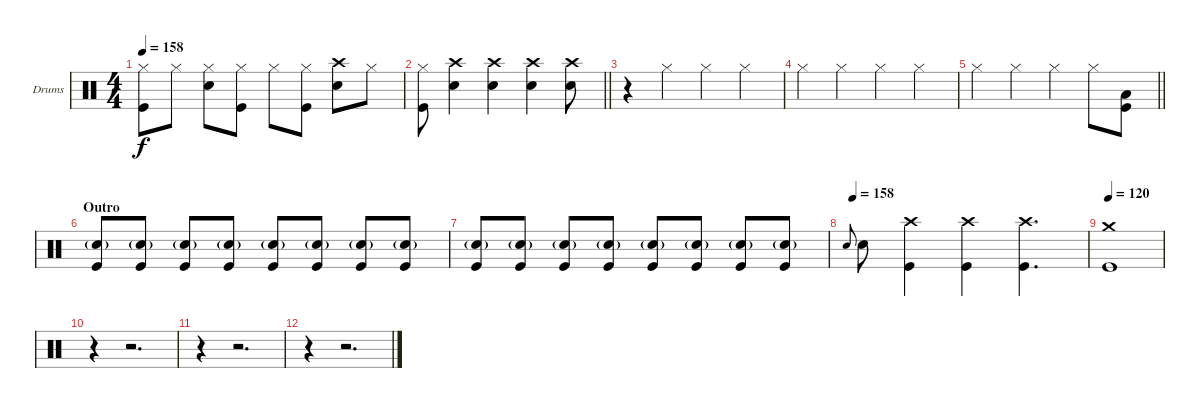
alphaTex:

\bracketExtendMode groupsimilarinstruments
\firstSystemTrackNameOrientation horizontal
\otherSystemsTrackNameOrientation horizontal
\track ("Drumkit" "Drums") {instrument percussion}
\staff {score}
\articulation defaults
\ts (4 4)
\tempo 158
\clef neutral
\ks c
("Hi-Hat (closed)" "Kick (hit)").8{dy f} "Hi-Hat (closed)".8 ("Hi-Hat (closed)" "Snare (hit) 2").8 ("Hi-Hat (closed)" "Kick (hit)").8 "Hi-Hat (closed)".8 ("Hi-Hat (closed)" "Kick (hit)").8 ("Crash high (hit)" "Snare (hit) 2").8 "Hi-Hat (closed)".8 |
\barLineRight lightlight
("Hi-Hat (closed)" "Kick (hit)").8 ("Crash high (hit)" "Snare (hit) 2").4 ("Crash high (hit)" "Snare (hit) 2").4 ("Crash high (hit)" "Snare (hit) 2").4 ("Crash high (hit)" "Snare (hit) 2").8 |
r.4 "Hi-Hat (closed)".4 "Hi-Hat (closed)".4 "Hi-Hat (closed)".4 |
"Hi-Hat (closed)".4 "Hi-Hat (closed)".4 "Hi-Hat (closed)".4 "Hi-Hat (closed)".4 |
\barLineRight lightlight "Hi-Hat (closed)".4 "Hi-Hat (closed)".4 "Hi-Hat (closed)".4 "Hi-Hat (closed)".8
("Kick (hit)" "Low Tom (hit)").8 |
\section ("" "Outro")
("Snare (hit) 2"{g} "Kick (hit)").8 ("Snare (hit) 2"{g} "Kick (hit)").8 ("Snare (hit) 2"{g} "Kick (hit)").8 ("Snare (hit) 2"{g} "Kick (hit)").8 ("Snare (hit) 2"{g} "Kick (hit)").8 ("Snare (hit) 2"{g} "Kick (hit)").8 ("Snare (hit) 2"{g} "Kick (hit)").8 ("Snare (hit) 2"{g} "Kick (hit)").8 |
("Snare (hit) 2"{g} "Kick (hit)").8 ("Snare (hit) 2"{g} "Kick (hit)").8 ("Snare (hit) 2"{g} "Kick (hit)").8 ("Snare (hit) 2"{g} "Kick (hit)").8 ("Snare (hit) 2"{g} "Kick (hit)").8 ("Snare (hit) 2"{g} "Kick (hit)").8 ("Snare (hit) 2"{g} "Kick (hit)").8 ("Snare (hit) 2"{g} "Kick (hit)").8 |
\tempo (158 0.03125)
"Snare (hit) 2".8{gr onbeat} "Snare (hit) 2".8 ("Crash high (hit)" "Kick (hit)").4 ("Crash high (hit)" "Kick (hit)").4 ("Crash high (hit)" "Kick (hit)").4{d} |
\tempo 120
("Crash medium (hit)" "Kick (hit)").1 |
r.4 r.2{d} |
r.4 r.2{d} |
r.4 r.2{d}
